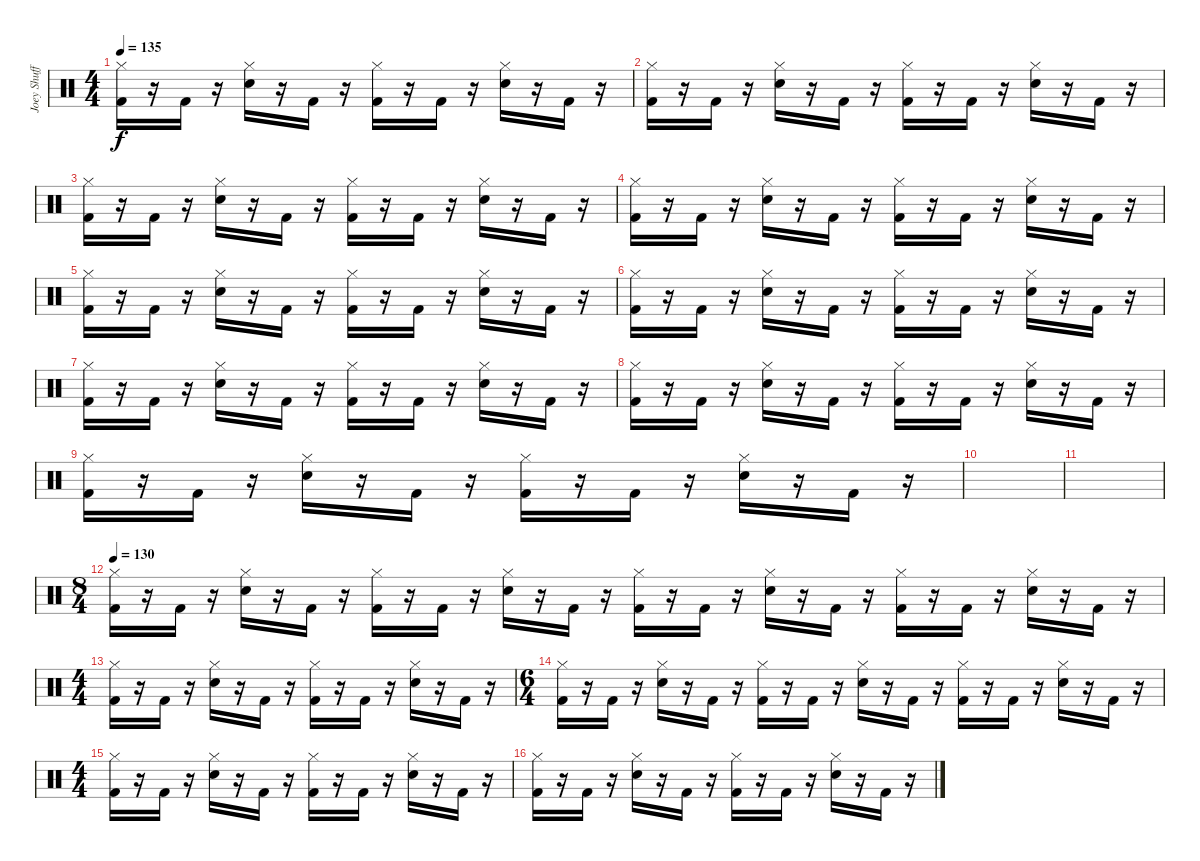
\track ("Joey Shuffield" "Joey Shuff") {instrument percussion}
\staff {score}
\articulation defaults
\ts (4 4)
\tempo 135
\clef neutral
\ks c
("Kick (hit) 2" "Hi-Hat (closed)").16{dy f} r.16 "Kick (hit) 2".16 r.16 ("Snare (hit) 2" "Hi-Hat (closed)").16 r.16 "Kick (hit) 2".16 r.16 ("Kick (hit) 2" "Hi-Hat (closed)").16 r.16 "Kick (hit) 2".16 r.16 ("Snare (hit) 2" "Hi-Hat (closed)").16 r.16 "Kick (hit) 2".16 r.16 |
("Kick (hit) 2" "Hi-Hat (closed)").16 r.16 "Kick (hit) 2".16 r.16 ("Snare (hit) 2" "Hi-Hat (closed)").16 r.16 "Kick (hit) 2".16 r.16 ("Kick (hit) 2" "Hi-Hat (closed)").16 r.16 "Kick (hit) 2".16 r.16 ("Snare (hit) 2" "Hi-Hat (closed)").16 r.16 "Kick (hit) 2".16 r.16 |
("Kick (hit) 2" "Hi-Hat (closed)").16 r.16 "Kick (hit) 2".16 r.16 ("Snare (hit) 2" "Hi-Hat (closed)").16 r.16 "Kick (hit) 2".16 r.16 ("Kick (hit) 2" "Hi-Hat (closed)").16 r.16 "Kick (hit) 2".16 r.16 ("Snare (hit) 2" "Hi-Hat (closed)").16 r.16 "Kick (hit) 2".16 r.16 |
("Kick (hit) 2" "Hi-Hat (closed)").16 r.16 "Kick (hit) 2".16 r.16 ("Snare (hit) 2" "Hi-Hat (closed)").16 r.16 "Kick (hit) 2".16 r.16 ("Kick (hit) 2" "Hi-Hat (closed)").16 r.16 "Kick (hit) 2".16 r.16 ("Snare (hit) 2" "Hi-Hat (closed)").16 r.16 "Kick (hit) 2".16 r.16 |
("Kick (hit) 2" "Hi-Hat (closed)").16 r.16 "Kick (hit) 2".16 r.16 ("Snare (hit) 2" "Hi-Hat (closed)").16 r.16 "Kick (hit) 2".16 r.16 ("Kick (hit) 2" "Hi-Hat (closed)").16 r.16 "Kick (hit) 2".16 r.16 ("Snare (hit) 2" "Hi-Hat (closed)").16 r.16 "Kick (hit) 2".16 r.16 |
("Kick (hit) 2" "Hi-Hat (closed)").16 r.16 "Kick (hit) 2".16 r.16 ("Snare (hit) 2" "Hi-Hat (closed)").16 r.16 "Kick (hit) 2".16 r.16 ("Kick (hit) 2" "Hi-Hat (closed)").16 r.16 "Kick (hit) 2".16 r.16 ("Snare (hit) 2" "Hi-Hat (closed)").16 r.16 "Kick (hit) 2".16 r.16 |
("Kick (hit) 2" "Hi-Hat (closed)").16 r.16 "Kick (hit) 2".16 r.16 ("Snare (hit) 2" "Hi-Hat (closed)").16 r.16 "Kick (hit) 2".16 r.16 ("Kick (hit) 2" "Hi-Hat (closed)").16 r.16 "Kick (hit) 2".16 r.16 ("Snare (hit) 2" "Hi-Hat (closed)").16 r.16 "Kick (hit) 2".16 r.16 |
("Kick (hit) 2" "Hi-Hat (closed)").16 r.16 "Kick (hit) 2".16 r.16 ("Snare (hit) 2" "Hi-Hat (closed)").16 r.16 "Kick (hit) 2".16 r.16 ("Kick (hit) 2" "Hi-Hat (closed)").16 r.16 "Kick (hit) 2".16 r.16 ("Snare (hit) 2" "Hi-Hat (closed)").16 r.16 "Kick (hit) 2".16 r.16 |
("Kick (hit) 2" "Hi-Hat (closed)").16 r.16 "Kick (hit) 2".16 r.16 ("Snare (hit) 2" "Hi-Hat (closed)").16 r.16 "Kick (hit) 2".16 r.16 ("Kick (hit) 2" "Hi-Hat (closed)").16 r.16 "Kick (hit) 2".16 r.16 ("Snare (hit) 2" "Hi-Hat (closed)").16 r.16 "Kick (hit) 2".16 r.16 |
|
|
\ts (8 4)
\tempo 130
("Kick (hit) 2" "Hi-Hat (closed)").16 r.16 "Kick (hit) 2".16 r.16 ("Snare (hit) 2" "Hi-Hat (closed)").16 r.16 "Kick (hit) 2".16 r.16 ("Kick (hit) 2" "Hi-Hat (closed)").16 r.16 "Kick (hit) 2".16 r.16 ("Snare (hit) 2" "Hi-Hat (closed)").16 r.16 "Kick (hit) 2".16 r.16 ("Kick (hit) 2" "Hi-Hat (closed)").16 r.16 "Kick (hit) 2".16 r.16 ("Snare (hit) 2" "Hi-Hat (closed)").16 r.16 "Kick (hit) 2".16 r.16 ("Kick (hit) 2" "Hi-Hat (closed)").16 r.16 "Kick (hit) 2".16 r.16 ("Snare (hit) 2" "Hi-Hat (closed)").16 r.16 "Kick (hit) 2".16 r.16 |
\ts (4 4)
("Kick (hit) 2" "Hi-Hat (closed)").16 r.16 "Kick (hit) 2".16 r.16 ("Snare (hit) 2" "Hi-Hat (closed)").16 r.16 "Kick (hit) 2".16 r.16 ("Kick (hit) 2" "Hi-Hat (closed)").16 r.16 "Kick (hit) 2".16 r.16 ("Snare (hit) 2" "Hi-Hat (closed)").16 r.16 "Kick (hit) 2".16 r.16 |
\ts (6 4)
("Kick (hit) 2" "Hi-Hat (closed)").16 r.16 "Kick (hit) 2".16 r.16 ("Snare (hit) 2" "Hi-Hat (closed)").16 r.16 "Kick (hit) 2".16 r.16 ("Kick (hit) 2" "Hi-Hat (closed)").16 r.16 "Kick (hit) 2".16 r.16 ("Snare (hit) 2" "Hi-Hat (closed)").16 r.16 "Kick (hit) 2".16 r.16 ("Kick (hit) 2" "Hi-Hat (closed)").16 r.16 "Kick (hit) 2".16 r.16 ("Snare (hit) 2" "Hi-Hat (closed)").16 r.16 "Kick (hit) 2".16 r.16 |
\ts (4 4)
("Kick (hit) 2" "Hi-Hat (closed)").16 r.16 "Kick (hit) 2".16 r.16 ("Snare (hit) 2" "Hi-Hat (closed)").16 r.16 "Kick (hit) 2".16 r.16 ("Kick (hit) 2" "Hi-Hat (closed)").16 r.16 "Kick (hit) 2".16 r.16 ("Snare (hit) 2" "Hi-Hat (closed)").16 r.16 "Kick (hit) 2".16 r.16 |
("Kick (hit) 2" "Hi-Hat (closed)").16 r.16 "Kick (hit) 2".16 r.16 ("Snare (hit) 2" "Hi-Hat (closed)").16 r.16 "Kick (hit) 2".16 r.16 ("Kick (hit) 2" "Hi-Hat (closed)").16 r.16 "Kick (hit) 2".16 r.16 ("Snare (hit) 2" "Hi-Hat (closed)").16 r.16 "Kick (hit) 2".16 r.16
